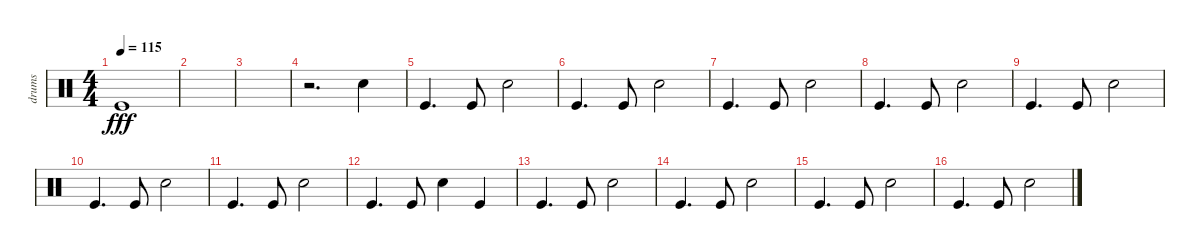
\track ("drums" "drums") {instrument percussion}
\staff {score}
\articulation defaults
\ts (4 4)
\tempo 115
\clef neutral
\ks c "Kick (hit)".1{dy fff}
|
|
|
r.2{d} "Electric Snare (hit)".4 |
"Kick (hit)".4{d} "Kick (hit)".8 "Electric Snare (hit)".2 |
"Kick (hit)".4{d} "Kick (hit)".8 "Electric Snare (hit)".2 |
"Kick (hit)".4{d} "Kick (hit)".8 "Electric Snare (hit)".2 |
"Kick (hit)".4{d} "Kick (hit)".8 "Electric Snare (hit)".2 |
"Kick (hit)".4{d} "Kick (hit)".8 "Electric Snare (hit)".2 |
"Kick (hit)".4{d} "Kick (hit)".8 "Electric Snare (hit)".2 |
"Kick (hit)".4{d} "Kick (hit)".8 "Electric Snare (hit)".2 |
"Kick (hit)".4{d} "Kick (hit)".8 "Electric Snare (hit)".4 "Kick (hit)".4 |
"Kick (hit)".4{d} "Kick (hit)".8 "Electric Snare (hit)".2 |
"Kick (hit)".4{d} "Kick (hit)".8 "Electric Snare (hit)".2 |
"Kick (hit)".4{d} "Kick (hit)".8 "Electric Snare (hit)".2 |
"Kick (hit)".4{d} "Kick (hit)".8 "Electric Snare (hit)".2
